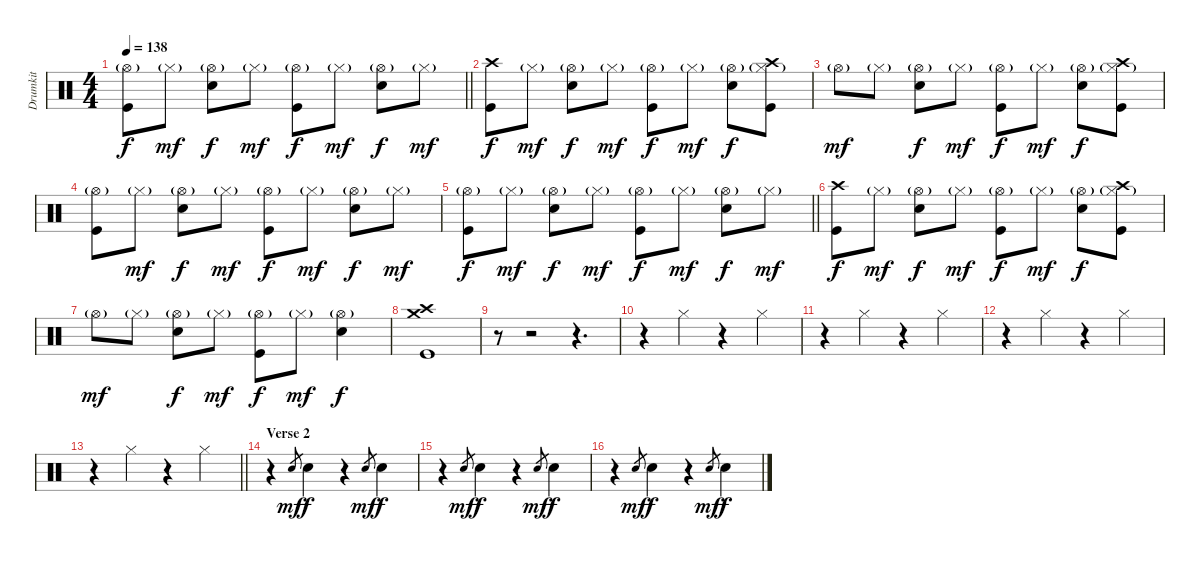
\track ("Drumkit" "Drumkit") {instrument percussion}
\staff {score}
\articulation defaults
\ts (4 4)
\tempo 138
\clef neutral
\barLineRight lightlight
\ks c
("Hi-Hat (open)"{g} "Kick (hit)").8{dy f} "Hi-Hat (closed)"{g}.8{dy mf} ("Hi-Hat (open)"{g} "Snare (hit) 2").8{dy f} "Hi-Hat (closed)"{g}.8{dy mf} ("Hi-Hat (open)"{g} "Kick (hit)").8{dy f} "Hi-Hat (closed)"{g}.8{dy mf} ("Hi-Hat (open)"{g} "Snare (hit) 2").8{dy f} "Hi-Hat (closed)"{g}.8{dy mf} |
("Crash high (hit)" "Kick (hit)").8{dy f} "Hi-Hat (closed)"{g}.8{dy mf} ("Hi-Hat (open)"{g} "Snare (hit) 2").8{dy f} "Hi-Hat (closed)"{g}.8{dy mf} ("Hi-Hat (open)"{g} "Kick (hit)").8{dy f} "Hi-Hat (closed)"{g}.8{dy mf} ("Hi-Hat (open)"{g} "Snare (hit) 2").8{dy f} ("Crash high (hit)" "Hi-Hat (closed)"{g} "Kick (hit)").8 |
"Hi-Hat (open)"{g}.8{dy mf} "Hi-Hat (closed)"{g}.8 ("Hi-Hat (open)"{g} "Snare (hit) 2").8{dy f} "Hi-Hat (closed)"{g}.8{dy mf} ("Hi-Hat (open)"{g} "Kick (hit)").8{dy f} "Hi-Hat (closed)"{g}.8{dy mf} ("Hi-Hat (open)"{g} "Snare (hit) 2").8{dy f} ("Crash high (hit)" "Hi-Hat (closed)"{g} "Kick (hit)").8 |
("Hi-Hat (open)"{g} "Kick (hit)").8 "Hi-Hat (closed)"{g}.8{dy mf} ("Hi-Hat (open)"{g} "Snare (hit) 2").8{dy f} "Hi-Hat (closed)"{g}.8{dy mf} ("Hi-Hat (open)"{g} "Kick (hit)").8{dy f} "Hi-Hat (closed)"{g}.8{dy mf} ("Hi-Hat (open)"{g} "Snare (hit) 2").8{dy f} "Hi-Hat (closed)"{g}.8{dy mf} |
\barLineRight lightlight
("Hi-Hat (open)"{g} "Kick (hit)").8{dy f} "Hi-Hat (closed)"{g}.8{dy mf} ("Hi-Hat (open)"{g} "Snare (hit) 2").8{dy f} "Hi-Hat (closed)"{g}.8{dy mf} ("Hi-Hat (open)"{g} "Kick (hit)").8{dy f} "Hi-Hat (closed)"{g}.8{dy mf} ("Hi-Hat (open)"{g} "Snare (hit) 2").8{dy f} "Hi-Hat (closed)"{g}.8{dy mf} |
("Crash high (hit)" "Kick (hit)").8{dy f} "Hi-Hat (closed)"{g}.8{dy mf} ("Hi-Hat (open)"{g} "Snare (hit) 2").8{dy f} "Hi-Hat (closed)"{g}.8{dy mf} ("Hi-Hat (open)"{g} "Kick (hit)").8{dy f} "Hi-Hat (closed)"{g}.8{dy mf} ("Hi-Hat (open)"{g} "Snare (hit) 2").8{dy f} ("Crash high (hit)" "Hi-Hat (closed)"{g} "Kick (hit)").8 |
"Hi-Hat (open)"{g}.8{dy mf} "Hi-Hat (closed)"{g}.8 ("Hi-Hat (open)"{g} "Snare (hit) 2").8{dy f} "Hi-Hat (closed)"{g}.8{dy mf} ("Hi-Hat (open)"{g} "Kick (hit)").8{dy f} "Hi-Hat (closed)"{g}.8{dy mf} ("Hi-Hat (open)"{g} "Snare (hit) 2").4{dy f} |
("Crash high (hit)" "Crash medium (hit)" "Kick (hit)").1 |
r.8 r.2 r.4{d} |
r.4 "Hi-Hat (closed)".4 r.4 "Hi-Hat (closed)".4 |
r.4 "Hi-Hat (closed)".4 r.4 "Hi-Hat (closed)".4 |
r.4 "Hi-Hat (closed)".4 r.4 "Hi-Hat (closed)".4 |
\barLineRight lightlight
r.4 "Hi-Hat (closed)".4 r.4 "Hi-Hat (closed)".4 |
\section ("" "Verse 2")
r.4 "Snare (hit)".8{gr dy mf} "Snare (hit) 2".4{dy f} r.4 "Snare (hit)".8{gr dy mf} "Snare (hit) 2".4{dy f} |
r.4 "Snare (hit)".8{gr dy mf} "Snare (hit) 2".4{dy f} r.4 "Snare (hit)".8{gr dy mf} "Snare (hit) 2".4{dy f} |
r.4 "Snare (hit)".8{gr dy mf} "Snare (hit) 2".4{dy f} r.4 "Snare (hit)".8{gr dy mf} "Snare (hit) 2".4{dy f}
